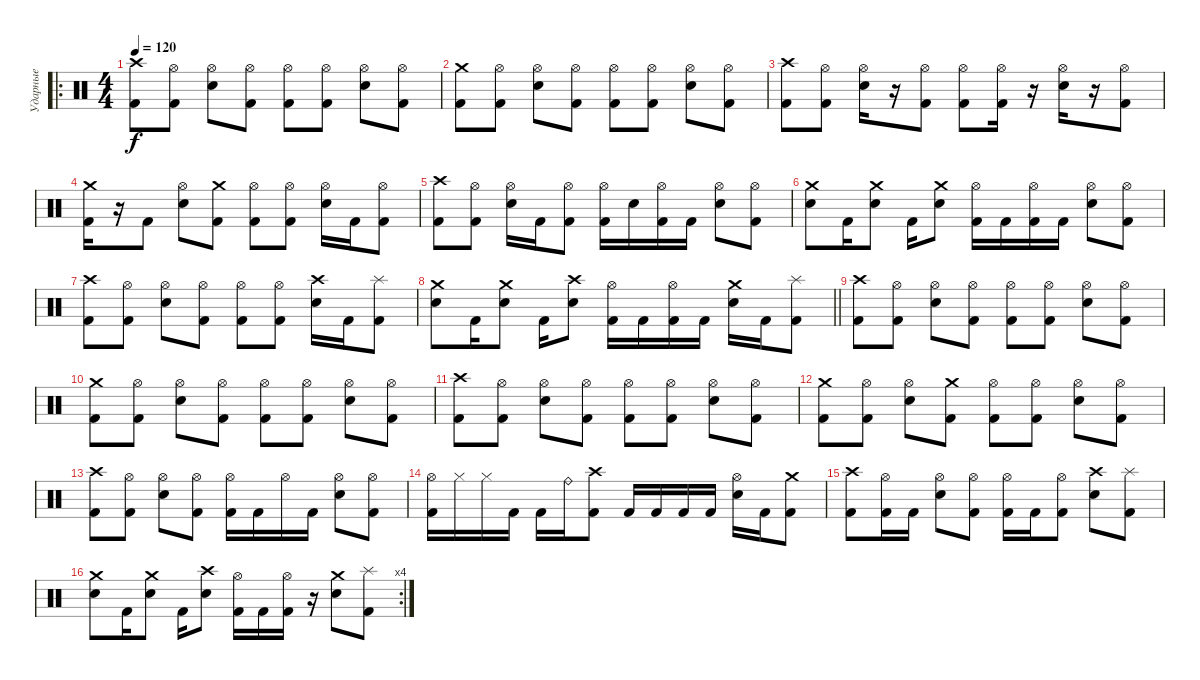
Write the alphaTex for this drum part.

\track ("Ударные" "Ударные") {instrument percussion}
\staff {score}
\articulation defaults
\ro
\ts (4 4)
\tempo 120
\clef neutral
\ks c
("Crash high (hit)" "Kick (hit) 2").8{dy f} ("Hi-Hat (open)" "Kick (hit) 2").8 ("Hi-Hat (open)" "Electric Snare (hit)").8 ("Hi-Hat (open)" "Kick (hit) 2").8 ("Hi-Hat (open)" "Kick (hit) 2").8 ("Hi-Hat (open)" "Kick (hit) 2").8 ("Hi-Hat (open)" "Electric Snare (hit)").8 ("Hi-Hat (open)" "Kick (hit) 2").8 |
("Crash medium (hit)" "Kick (hit) 2").8 ("Hi-Hat (open)" "Kick (hit) 2").8 ("Hi-Hat (open)" "Electric Snare (hit)").8 ("Hi-Hat (open)" "Kick (hit) 2").8 ("Hi-Hat (open)" "Kick (hit) 2").8 ("Hi-Hat (open)" "Kick (hit) 2").8 ("Hi-Hat (open)" "Electric Snare (hit)").8 ("Hi-Hat (open)" "Kick (hit) 2").8 |
("Crash high (hit)" "Kick (hit) 2").8 ("Hi-Hat (open)" "Kick (hit) 2").8 ("Hi-Hat (open)" "Electric Snare (hit)").16 r.16 ("Hi-Hat (open)" "Kick (hit) 2").8 ("Hi-Hat (open)" "Kick (hit) 2").8 ("Hi-Hat (open)" "Kick (hit) 2").16 r.16 ("Hi-Hat (open)" "Electric Snare (hit)").16 r.16 ("Hi-Hat (open)" "Kick (hit) 2").8 |
("Crash medium (hit)" "Kick (hit) 2").16 r.16 "Kick (hit) 2".8 ("Hi-Hat (open)" "Electric Snare (hit)").8 ("Crash medium (hit)" "Kick (hit) 2").8 ("Hi-Hat (open)" "Kick (hit) 2").8 ("Hi-Hat (open)" "Kick (hit) 2").8 ("Hi-Hat (open)" "Electric Snare (hit)").16 "Kick (hit) 2".16 ("Hi-Hat (open)" "Kick (hit) 2").8 |
("Crash high (hit)" "Kick (hit) 2").8 ("Hi-Hat (open)" "Kick (hit) 2").8 ("Hi-Hat (open)" "Electric Snare (hit)").16 "Kick (hit) 2".16 ("Hi-Hat (open)" "Kick (hit) 2").8 ("Hi-Hat (open)" "Kick (hit) 2").16 "Electric Snare (hit)".16 ("Hi-Hat (open)" "Kick (hit) 2").16 "Kick (hit) 2".16 ("Hi-Hat (open)" "Electric Snare (hit)").8 ("Hi-Hat (open)" "Kick (hit) 2").8 |
("Crash medium (hit)" "Electric Snare (hit)").8 "Kick (hit) 2".16 ("Crash medium (hit)" "Electric Snare (hit)").8 "Kick (hit) 2".16 ("Crash medium (hit)" "Electric Snare (hit)").8 ("Hi-Hat (open)" "Kick (hit) 2").16 "Kick (hit) 2".16 ("Hi-Hat (open)" "Kick (hit) 2").16 "Kick (hit) 2".16 ("Hi-Hat (open)" "Electric Snare (hit)").8 ("Hi-Hat (open)" "Kick (hit) 2").8 |
("Crash high (hit)" "Kick (hit) 2").8 ("Hi-Hat (open)" "Kick (hit) 2").8 ("Hi-Hat (open)" "Electric Snare (hit)").8 ("Hi-Hat (open)" "Kick (hit) 2").8 ("Hi-Hat (open)" "Kick (hit) 2").8 ("Hi-Hat (open)" "Kick (hit) 2").8 ("Crash high (hit)" "Electric Snare (hit)").16 "Kick (hit) 2".16 ("Splash (hit)" "Kick (hit) 2").8 |
\barLineRight lightlight
("Crash medium (hit)" "Electric Snare (hit)").8 "Kick (hit) 2".16 ("Crash medium (hit)" "Electric Snare (hit)").8 "Kick (hit) 2".16 ("Crash high (hit)" "Electric Snare (hit)").8 ("Hi-Hat (open)" "Kick (hit) 2").16 "Kick (hit) 2".16 ("Hi-Hat (open)" "Kick (hit) 2").16 "Kick (hit) 2".16 ("Crash medium (hit)" "Electric Snare (hit)").16 "Kick (hit) 2".16 ("Splash (hit)" "Kick (hit) 2").8 |
("Crash high (hit)" "Kick (hit) 2").8 ("Hi-Hat (open)" "Kick (hit) 2").8 ("Hi-Hat (open)" "Electric Snare (hit)").8 ("Hi-Hat (open)" "Kick (hit) 2").8 ("Hi-Hat (open)" "Kick (hit) 2").8 ("Hi-Hat (open)" "Kick (hit) 2").8 ("Hi-Hat (open)" "Electric Snare (hit)").8 ("Hi-Hat (open)" "Kick (hit) 2").8 |
("Crash medium (hit)" "Kick (hit) 2").8 ("Hi-Hat (open)" "Kick (hit) 2").8 ("Hi-Hat (open)" "Electric Snare (hit)").8 ("Hi-Hat (open)" "Kick (hit) 2").8 ("Hi-Hat (open)" "Kick (hit) 2").8 ("Hi-Hat (open)" "Kick (hit) 2").8 ("Hi-Hat (open)" "Electric Snare (hit)").8 ("Hi-Hat (open)" "Kick (hit) 2").8 |
("Crash high (hit)" "Kick (hit) 2").8 ("Hi-Hat (open)" "Kick (hit) 2").8 ("Hi-Hat (open)" "Electric Snare (hit)").8 ("Hi-Hat (open)" "Kick (hit) 2").8 ("Hi-Hat (open)" "Kick (hit) 2").8 ("Hi-Hat (open)" "Kick (hit) 2").8 ("Hi-Hat (open)" "Electric Snare (hit)").8 ("Hi-Hat (open)" "Kick (hit) 2").8 |
("Crash medium (hit)" "Kick (hit) 2").8 ("Hi-Hat (open)" "Kick (hit) 2").8 ("Hi-Hat (open)" "Electric Snare (hit)").8 ("Crash medium (hit)" "Kick (hit) 2").8 ("Hi-Hat (open)" "Kick (hit) 2").8 ("Hi-Hat (open)" "Kick (hit) 2").8 ("Hi-Hat (open)" "Electric Snare (hit)").8 ("Hi-Hat (open)" "Kick (hit) 2").8 |
("Crash high (hit)" "Kick (hit) 2").8 ("Hi-Hat (open)" "Kick (hit) 2").8 ("Hi-Hat (open)" "Electric Snare (hit)").8 ("Hi-Hat (open)" "Kick (hit) 2").8 ("Hi-Hat (open)" "Kick (hit) 2").16 "Kick (hit) 2".16 "Hi-Hat (open)".16 "Kick (hit) 2".16 ("Hi-Hat (open)" "Electric Snare (hit)").8 ("Hi-Hat (open)" "Kick (hit) 2").8 |
("Hi-Hat (open)" "Kick (hit) 2").16 "Hi-Hat (closed)".16 "Hi-Hat (closed)".16 "Kick (hit) 2".16 "Kick (hit) 2".16 "Ride (bell)".16 ("Crash high (hit)" "Kick (hit) 2").8 "Kick (hit) 2".16 "Kick (hit) 2".16 "Kick (hit) 2".16 "Kick (hit) 2".16 ("Hi-Hat (open)" "Electric Snare (hit)").16 "Kick (hit) 2".16 ("Crash medium (hit)" "Kick (hit) 2").8 |
("Crash high (hit)" "Kick (hit) 2").8 ("Hi-Hat (open)" "Kick (hit) 2").16 "Kick (hit) 2".16 ("Hi-Hat (open)" "Electric Snare (hit)").8 ("Hi-Hat (open)" "Kick (hit) 2").8 ("Hi-Hat (open)" "Kick (hit) 2").16 "Kick (hit) 2".16 ("Hi-Hat (open)" "Kick (hit) 2").8 ("Crash high (hit)" "Electric Snare (hit)").8 ("Splash (hit)" "Kick (hit) 2").8 |
\rc 4
("Crash medium (hit)" "Electric Snare (hit)").8 "Kick (hit) 2".16 ("Crash medium (hit)" "Electric Snare (hit)").8 "Kick (hit) 2".16 ("Crash high (hit)" "Electric Snare (hit)").8 ("Hi-Hat (open)" "Kick (hit) 2").16 "Kick (hit) 2".16 ("Hi-Hat (open)" "Kick (hit) 2").16 r.16 ("Crash medium (hit)" "Electric Snare (hit)").8 ("Splash (hit)" "Kick (hit) 2").8
